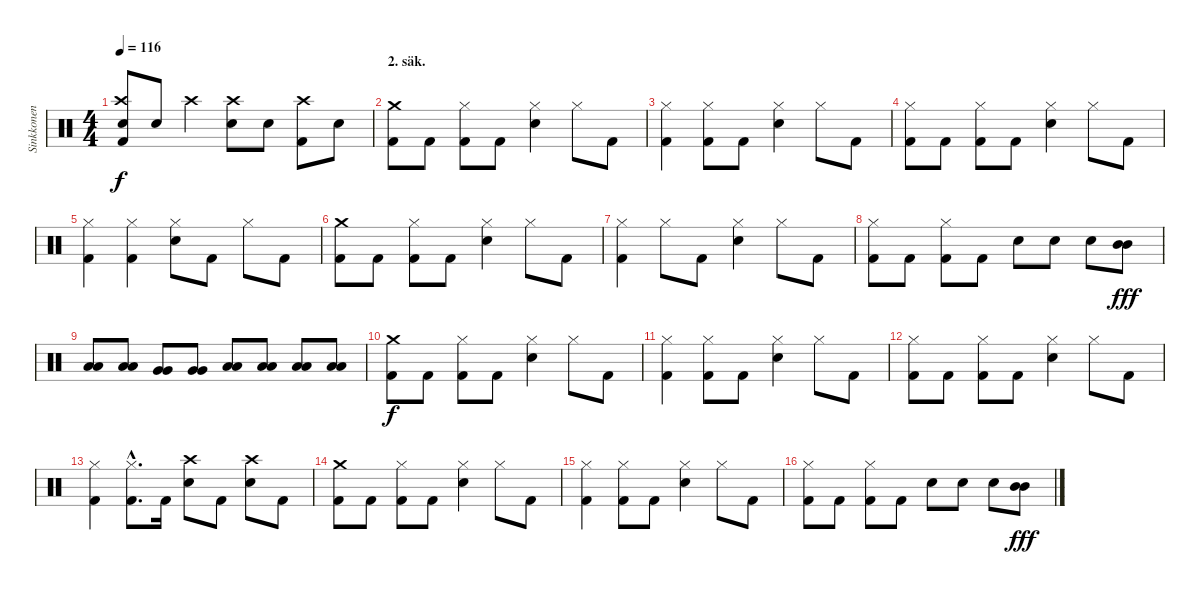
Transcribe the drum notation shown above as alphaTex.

\track ("Sinkkonen" "Sinkkonen") {instrument percussion}
\staff {score}
\articulation defaults
\ts (4 4)
\tempo 116
\clef neutral
\ks c
("Kick (hit) 2" "Crash high (hit)" "Snare (hit) 2").8{dy f} "Snare (hit) 2".8 "Crash high (hit)".4 ("Crash high (hit)" "Snare (hit) 2").8 "Snare (hit) 2".8 ("Kick (hit) 2" "Crash high (hit)").8 "Snare (hit) 2".8 |
\section ("" "2. säk.")
("Kick (hit) 2" "Crash medium (hit)").8 "Kick (hit) 2".8 ("Kick (hit) 2" "Hi-Hat (closed)").8 "Kick (hit) 2".8 ("Hi-Hat (closed)" "Snare (hit) 2").4 "Hi-Hat (closed)".8 "Kick (hit) 2".8 |
("Kick (hit) 2" "Hi-Hat (closed)").4 ("Kick (hit) 2" "Hi-Hat (closed)").8 "Kick (hit) 2".8 ("Hi-Hat (closed)" "Snare (hit) 2").4 "Hi-Hat (closed)".8 "Kick (hit) 2".8 |
("Kick (hit) 2" "Hi-Hat (closed)").8 "Kick (hit) 2".8 ("Kick (hit) 2" "Hi-Hat (closed)").8 "Kick (hit) 2".8 ("Hi-Hat (closed)" "Snare (hit) 2").4 "Hi-Hat (closed)".8 "Kick (hit) 2".8 |
("Kick (hit) 2" "Hi-Hat (closed)").4 ("Kick (hit) 2" "Hi-Hat (closed)").4 ("Hi-Hat (closed)" "Snare (hit) 2").8 "Kick (hit) 2".8 "Hi-Hat (closed)".8 "Kick (hit) 2".8 |
("Kick (hit) 2" "Crash medium (hit)").8 "Kick (hit) 2".8 ("Kick (hit) 2" "Hi-Hat (closed)").8 "Kick (hit) 2".8 ("Hi-Hat (closed)" "Snare (hit) 2").4 "Hi-Hat (closed)".8 "Kick (hit) 2".8 |
("Kick (hit) 2" "Hi-Hat (closed)").4 "Hi-Hat (closed)".8 "Kick (hit) 2".8 ("Hi-Hat (closed)" "Snare (hit) 2").4 "Hi-Hat (closed)".8 "Kick (hit) 2".8 |
("Kick (hit) 2" "Hi-Hat (closed)").8 "Kick (hit) 2".8 ("Kick (hit) 2" "Hi-Hat (closed)").8 "Kick (hit) 2".8 "Snare (hit) 2".8 "Snare (hit) 2".8 "Snare (hit) 2".8 ("Mid Tom (hit)" "Mid Tom (hit)").8{dy fff} |
("Low Tom (hit)" "Low Tom (hit)").8 ("Low Tom (hit)" "Low Tom (hit)").8 ("Very Low Tom (hit)" "Very Low Tom (hit)").8 ("Very Low Tom (hit)" "Very Low Tom (hit)").8 ("Low Floor Tom (hit)" "Low Floor Tom (hit)").8 ("Low Floor Tom (hit)" "Low Floor Tom (hit)").8 ("Low Floor Tom (hit)" "Low Floor Tom (hit)").8 ("Low Floor Tom (hit)" "Low Floor Tom (hit)").8 |
("Kick (hit) 2" "Crash medium (hit)").8{dy f} "Kick (hit) 2".8 ("Kick (hit) 2" "Hi-Hat (closed)").8 "Kick (hit) 2".8 ("Hi-Hat (closed)" "Snare (hit) 2").4 "Hi-Hat (closed)".8 "Kick (hit) 2".8 |
("Kick (hit) 2" "Hi-Hat (closed)").4 ("Kick (hit) 2" "Hi-Hat (closed)").8 "Kick (hit) 2".8 ("Hi-Hat (closed)" "Snare (hit) 2").4 "Hi-Hat (closed)".8 "Kick (hit) 2".8 |
("Kick (hit) 2" "Hi-Hat (closed)").8 "Kick (hit) 2".8 ("Kick (hit) 2" "Hi-Hat (closed)").8 "Kick (hit) 2".8 ("Hi-Hat (closed)" "Snare (hit) 2").4 "Hi-Hat (closed)".8 "Kick (hit) 2".8 |
("Kick (hit) 2" "Hi-Hat (closed)").4 ("Kick (hit) 2"{hac} "Hi-Hat (closed)"{hac}).8{d} "Kick (hit) 2".16 ("Crash high (hit)" "Snare (hit) 2").8 "Kick (hit) 2".8 ("Crash high (hit)" "Snare (hit) 2").8 "Kick (hit) 2".8 |
("Kick (hit) 2" "Crash medium (hit)").8 "Kick (hit) 2".8 ("Kick (hit) 2" "Hi-Hat (closed)").8 "Kick (hit) 2".8 ("Hi-Hat (closed)" "Snare (hit) 2").4 "Hi-Hat (closed)".8 "Kick (hit) 2".8 |
("Kick (hit) 2" "Hi-Hat (closed)").4 ("Kick (hit) 2" "Hi-Hat (closed)").8 "Kick (hit) 2".8 ("Hi-Hat (closed)" "Snare (hit) 2").4 "Hi-Hat (closed)".8 "Kick (hit) 2".8 |
("Kick (hit) 2" "Hi-Hat (closed)").8 "Kick (hit) 2".8 ("Kick (hit) 2" "Hi-Hat (closed)").8 "Kick (hit) 2".8 "Snare (hit) 2".8 "Snare (hit) 2".8 "Snare (hit) 2".8 ("Mid Tom (hit)" "Mid Tom (hit)").8{dy fff}
